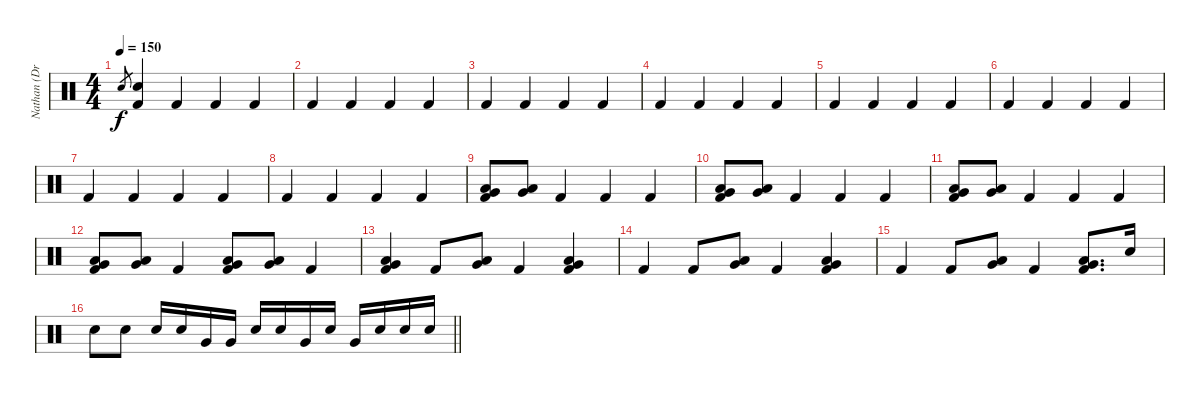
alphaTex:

\track ("Nathan (Drums)" "Nathan (Dr") {instrument percussion}
\staff {score}
\articulation defaults
\ts (4 4)
\tempo 150
\clef neutral
\ks c "Electric Snare (hit)".8{gr dy f}
("Electric Snare (hit)" "Kick (hit) 2").4 "Kick (hit) 2".4 "Kick (hit) 2".4 "Kick (hit) 2".4 |
"Kick (hit) 2".4 "Kick (hit) 2".4 "Kick (hit) 2".4 "Kick (hit) 2".4 |
"Kick (hit) 2".4 "Kick (hit) 2".4 "Kick (hit) 2".4 "Kick (hit) 2".4 |
"Kick (hit) 2".4 "Kick (hit) 2".4 "Kick (hit) 2".4 "Kick (hit) 2".4 |
"Kick (hit) 2".4 "Kick (hit) 2".4 "Kick (hit) 2".4 "Kick (hit) 2".4 |
"Kick (hit) 2".4 "Kick (hit) 2".4 "Kick (hit) 2".4 "Kick (hit) 2".4 |
"Kick (hit) 2".4 "Kick (hit) 2".4 "Kick (hit) 2".4 "Kick (hit) 2".4 |
"Kick (hit) 2".4 "Kick (hit) 2".4 "Kick (hit) 2".4 "Kick (hit) 2".4 |
("Low Tom (hit)" "Very Low Tom (hit)" "Kick (hit) 2").8 ("Low Tom (hit)" "Very Low Tom (hit)").8 "Kick (hit) 2".4 "Kick (hit) 2".4 "Kick (hit) 2".4 |
("Low Tom (hit)" "Very Low Tom (hit)" "Kick (hit) 2").8 ("Low Tom (hit)" "Very Low Tom (hit)").8 "Kick (hit) 2".4 "Kick (hit) 2".4 "Kick (hit) 2".4 |
("Low Tom (hit)" "Very Low Tom (hit)" "Kick (hit) 2").8 ("Low Tom (hit)" "Very Low Tom (hit)").8 "Kick (hit) 2".4 "Kick (hit) 2".4 "Kick (hit) 2".4 |
("Low Tom (hit)" "Very Low Tom (hit)" "Kick (hit) 2").8 ("Low Tom (hit)" "Very Low Tom (hit)").8 "Kick (hit) 2".4 ("Low Tom (hit)" "Very Low Tom (hit)" "Kick (hit) 2").8 ("Low Tom (hit)" "Very Low Tom (hit)").8 "Kick (hit) 2".4 |
("Low Tom (hit)" "Very Low Tom (hit)" "Kick (hit) 2").4 "Kick (hit) 2".8 ("Low Tom (hit)" "Very Low Tom (hit)").8 "Kick (hit) 2".4 ("Low Tom (hit)" "Very Low Tom (hit)" "Kick (hit) 2").4 |
"Kick (hit) 2".4 "Kick (hit) 2".8 ("Low Tom (hit)" "Very Low Tom (hit)").8 "Kick (hit) 2".4 ("Low Tom (hit)" "Very Low Tom (hit)" "Kick (hit) 2").4 |
"Kick (hit) 2".4 "Kick (hit) 2".8 ("Low Tom (hit)" "Very Low Tom (hit)").8 "Kick (hit) 2".4 ("Low Tom (hit)" "Very Low Tom (hit)" "Kick (hit) 2").8{d} "Electric Snare (hit)".16 |
\barLineRight lightlight "Electric Snare (hit)".8 "Electric Snare (hit)".8 "Electric Snare (hit)".16 "Electric Snare (hit)".16 "Very Low Tom (hit)".16 "Very Low Tom (hit)".16 "Electric Snare (hit)".16 "Electric Snare (hit)".16 "Very Low Tom (hit)".16 "Electric Snare (hit)".16 "Very Low Tom (hit)".16 "Electric Snare (hit)".16 "Electric Snare (hit)".16 "Electric Snare (hit)".16
